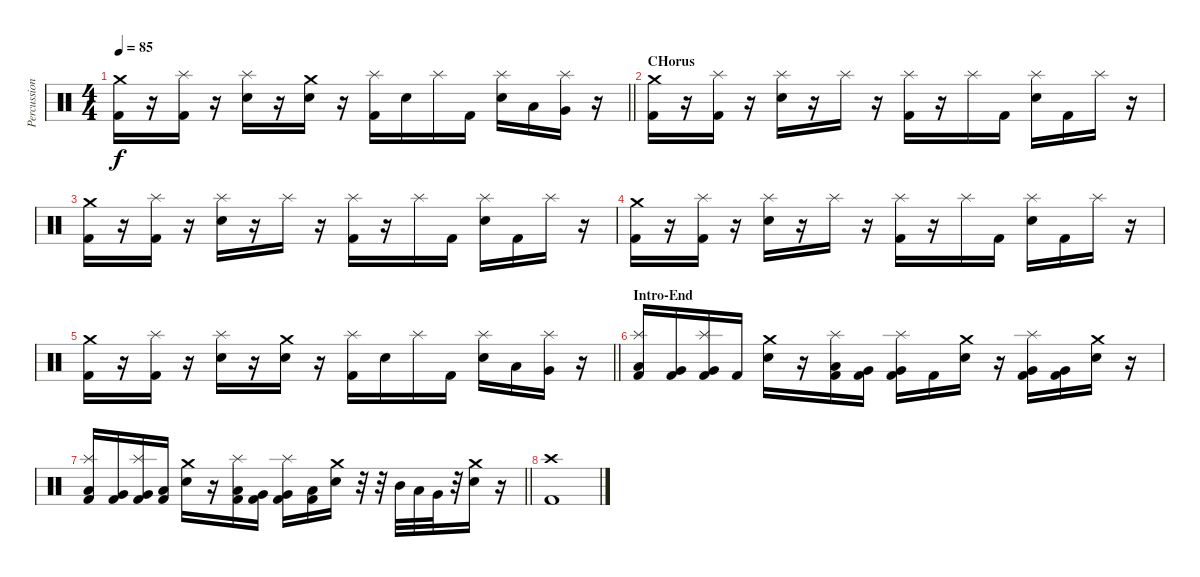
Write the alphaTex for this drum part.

\track ("Percussion" "Percussion") {instrument percussion}
\staff {score}
\articulation defaults
\ts (4 4)
\tempo 85
\clef neutral
\barLineRight lightlight
\ks c
("Crash medium (hit)" "Kick (hit) 2").16{dy f} r.16 ("Splash (hit)" "Kick (hit) 2").16 r.16 ("Splash (hit)" "Electric Snare (hit)").16 r.16 ("Crash medium (hit)" "Electric Snare (hit)").16 r.16 ("Splash (hit)" "Kick (hit) 2").16 "Electric Snare (hit)".16 "Splash (hit)".16 "Kick (hit) 2".16 ("Splash (hit)" "Electric Snare (hit)").16 "Low Tom (hit)".16 ("Splash (hit)" "Very Low Tom (hit)").16 r.16 |
\section ("" "CHorus")
("Crash medium (hit)" "Kick (hit) 2").16 r.16 ("Splash (hit)" "Kick (hit) 2").16 r.16 ("Splash (hit)" "Electric Snare (hit)").16 r.16 "Splash (hit)".16 r.16 ("Splash (hit)" "Kick (hit) 2").16 r.16 "Splash (hit)".16 "Kick (hit) 2".16 ("Splash (hit)" "Electric Snare (hit)").16 "Kick (hit) 2".16 "Splash (hit)".16 r.16 |
("Crash medium (hit)" "Kick (hit) 2").16 r.16 ("Splash (hit)" "Kick (hit) 2").16 r.16 ("Splash (hit)" "Electric Snare (hit)").16 r.16 "Splash (hit)".16 r.16 ("Splash (hit)" "Kick (hit) 2").16 r.16 "Splash (hit)".16 "Kick (hit) 2".16 ("Splash (hit)" "Electric Snare (hit)").16 "Kick (hit) 2".16 "Splash (hit)".16 r.16 |
("Crash medium (hit)" "Kick (hit) 2").16 r.16 ("Splash (hit)" "Kick (hit) 2").16 r.16 ("Splash (hit)" "Electric Snare (hit)").16 r.16 "Splash (hit)".16 r.16 ("Splash (hit)" "Kick (hit) 2").16 r.16 "Splash (hit)".16 "Kick (hit) 2".16 ("Splash (hit)" "Electric Snare (hit)").16 "Kick (hit) 2".16 "Splash (hit)".16 r.16 |
\barLineRight lightlight
("Crash medium (hit)" "Kick (hit) 2").16 r.16 ("Splash (hit)" "Kick (hit) 2").16 r.16 ("Splash (hit)" "Electric Snare (hit)").16 r.16 ("Crash medium (hit)" "Electric Snare (hit)").16 r.16 ("Splash (hit)" "Kick (hit) 2").16 "Electric Snare (hit)".16 "Splash (hit)".16 "Kick (hit) 2".16 ("Splash (hit)" "Electric Snare (hit)").16 "Low Tom (hit)".16 ("Splash (hit)" "Very Low Tom (hit)").16 r.16 |
\section ("" "Intro-End")
("Splash (hit)" "Low Tom (hit)" "Kick (hit) 2").16 ("Very Low Tom (hit)" "Kick (hit) 2").16 ("Splash (hit)" "Very Low Tom (hit)" "Kick (hit) 2").16 "Kick (hit) 2".16 ("Crash medium (hit)" "Electric Snare (hit)").16 r.16 ("Splash (hit)" "Low Tom (hit)" "Kick (hit) 2").16 ("Very Low Tom (hit)" "Kick (hit) 2").16 ("Splash (hit)" "Very Low Tom (hit)" "Kick (hit) 2").16 "Kick (hit) 2".16 ("Crash medium (hit)" "Electric Snare (hit)").16 r.16 ("Splash (hit)" "Very Low Tom (hit)" "Kick (hit) 2").16 ("Very Low Tom (hit)" "Kick (hit) 2").16 ("Crash medium (hit)" "Electric Snare (hit)").16 r.16 |
\barLineRight lightlight
("Splash (hit)" "Low Tom (hit)" "Kick (hit) 2").16 ("Very Low Tom (hit)" "Kick (hit) 2").16 ("Splash (hit)" "Very Low Tom (hit)" "Kick (hit) 2").16 ("Low Floor Tom (hit)" "Kick (hit) 2").16 ("Crash medium (hit)" "Electric Snare (hit)").16 r.16 ("Splash (hit)" "Low Tom (hit)" "Kick (hit) 2").16 ("Very Low Tom (hit)" "Kick (hit) 2").16 ("Splash (hit)" "Very Low Tom (hit)" "Kick (hit) 2").16 ("Low Floor Tom (hit)" "Kick (hit) 2").16 ("Crash medium (hit)" "Electric Snare (hit)").16 r.32 r.32 "Mid Tom (hit)".32 "Low Tom (hit)".32 "Very Low Tom (hit)".32 r.32 ("Crash medium (hit)" "Electric Snare (hit)").16 r.16 |
("Crash high (hit)" "Kick (hit) 2").1
